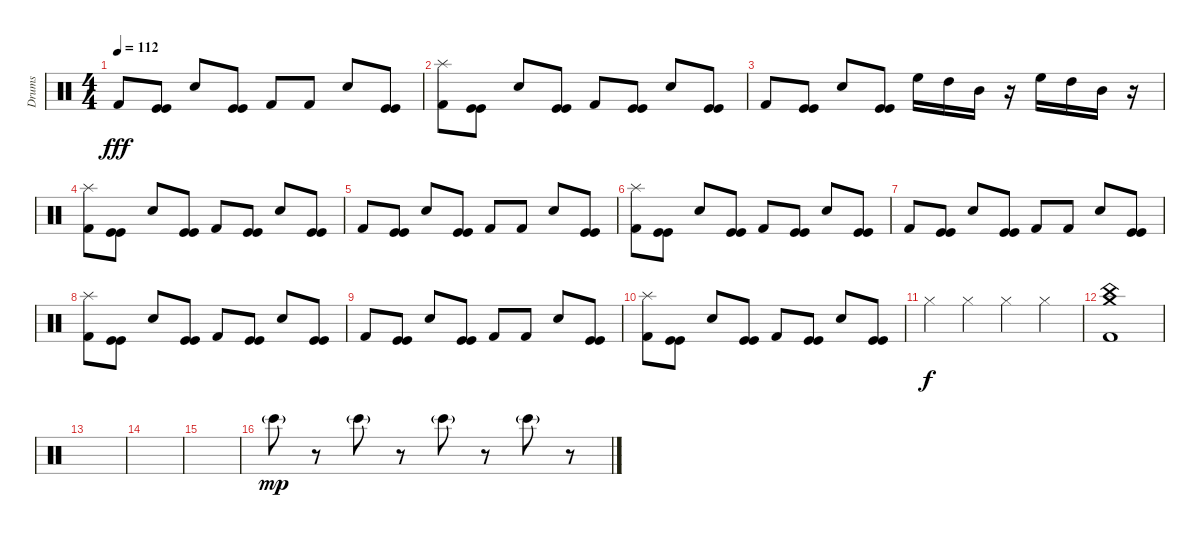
\track ("Drums" "Drums") {instrument percussion}
\staff {score}
\articulation defaults
\ts (4 4)
\tempo 112
\clef neutral
\ks c "Kick (hit) 2".8{dy fff}
("Kick (hit)" "Kick (hit)").8 "Snare (hit) 2".8 ("Kick (hit)" "Kick (hit)").8 "Kick (hit) 2".8 "Kick (hit) 2".8 "Snare (hit) 2".8 ("Kick (hit)" "Kick (hit)").8 |
("Kick (hit) 2" "Splash (hit)").8 ("Kick (hit)" "Kick (hit)").8 "Snare (hit) 2".8 ("Kick (hit)" "Kick (hit)").8 "Kick (hit) 2".8 ("Kick (hit)" "Kick (hit)").8 "Snare (hit) 2".8 ("Kick (hit)" "Kick (hit)").8 |
"Kick (hit) 2".8 ("Kick (hit)" "Kick (hit)").8 "Snare (hit) 2".8 ("Kick (hit)" "Kick (hit)").8 "High Floor Tom (hit)".16 "High Tom (hit)".16 "Mid Tom (hit)".16 r.16 "High Floor Tom (hit)".16 "High Tom (hit)".16 "Mid Tom (hit)".16 r.16 |
("Kick (hit) 2" "Splash (hit)").8 ("Kick (hit)" "Kick (hit)").8 "Snare (hit) 2".8 ("Kick (hit)" "Kick (hit)").8 "Kick (hit) 2".8 ("Kick (hit)" "Kick (hit)").8 "Snare (hit) 2".8 ("Kick (hit)" "Kick (hit)").8 |
"Kick (hit) 2".8 ("Kick (hit)" "Kick (hit)").8 "Snare (hit) 2".8 ("Kick (hit)" "Kick (hit)").8 "Kick (hit) 2".8 "Kick (hit) 2".8 "Snare (hit) 2".8 ("Kick (hit)" "Kick (hit)").8 |
("Kick (hit) 2" "Splash (hit)").8 ("Kick (hit)" "Kick (hit)").8 "Snare (hit) 2".8 ("Kick (hit)" "Kick (hit)").8 "Kick (hit) 2".8 ("Kick (hit)" "Kick (hit)").8 "Snare (hit) 2".8 ("Kick (hit)" "Kick (hit)").8 |
"Kick (hit) 2".8 ("Kick (hit)" "Kick (hit)").8 "Snare (hit) 2".8 ("Kick (hit)" "Kick (hit)").8 "Kick (hit) 2".8 "Kick (hit) 2".8 "Snare (hit) 2".8 ("Kick (hit)" "Kick (hit)").8 |
("Kick (hit) 2" "Splash (hit)").8 ("Kick (hit)" "Kick (hit)").8 "Snare (hit) 2".8 ("Kick (hit)" "Kick (hit)").8 "Kick (hit) 2".8 ("Kick (hit)" "Kick (hit)").8 "Snare (hit) 2".8 ("Kick (hit)" "Kick (hit)").8 |
"Kick (hit) 2".8 ("Kick (hit)" "Kick (hit)").8 "Snare (hit) 2".8 ("Kick (hit)" "Kick (hit)").8 "Kick (hit) 2".8 "Kick (hit) 2".8 "Snare (hit) 2".8 ("Kick (hit)" "Kick (hit)").8 |
("Kick (hit) 2" "Splash (hit)").8 ("Kick (hit)" "Kick (hit)").8 "Snare (hit) 2".8 ("Kick (hit)" "Kick (hit)").8 "Kick (hit) 2".8 ("Kick (hit)" "Kick (hit)").8 "Snare (hit) 2".8 ("Kick (hit)" "Kick (hit)").8 |
"Hi-Hat (closed)".4{dy f} "Hi-Hat (closed)".4 "Hi-Hat (closed)".4 "Hi-Hat (closed)".4 |
("Kick (hit) 2" "Crash medium (hit)" "China (hit)").1 |
|
|
|
"Bongo High (hit)"{g}.8{dy mp} r.8 "Bongo High (hit)"{g}.8 r.8 "Bongo High (hit)"{g}.8 r.8 "Bongo High (hit)"{g}.8 r.8
